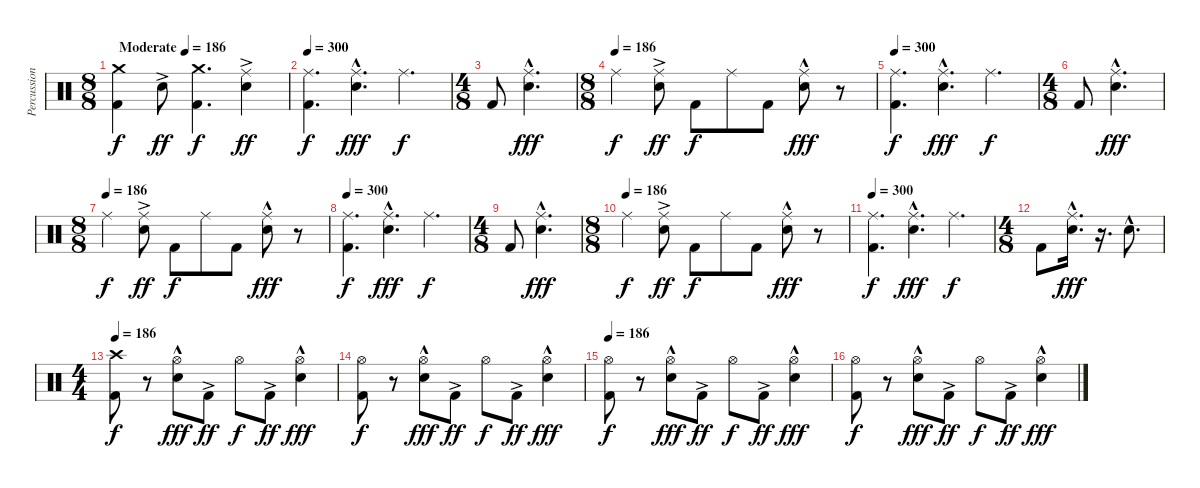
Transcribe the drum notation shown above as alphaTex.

\track ("Percussion" "Percussion") {instrument percussion}
\staff {score}
\articulation defaults
\ts (8 8)
\tempo (186 "Moderate")
\clef neutral
\ks c
("Kick (hit) 2" "Crash medium (hit)").4{dy f} "Electric Snare (hit)"{ac}.8{dy ff} ("Kick (hit) 2" "Crash medium (hit)").4{d dy f} ("Electric Snare (hit)"{ac} "Ride (middle)").4{dy ff} |
\tempo 300
("Kick (hit) 2" "Ride (middle)").4{d dy f} ("Electric Snare (hit)"{hac} "Ride (middle)").4{d dy fff} "Ride (middle)".4{d dy f} |
\ts (4 8)
"Kick (hit) 2".8 ("Electric Snare (hit)"{hac} "Ride (middle)").4{d dy fff} |
\ts (8 8)
\tempo (186)
"Ride (middle)".4{dy f} ("Electric Snare (hit)"{ac} "Ride (middle)").8{dy ff} "Kick (hit) 2".8{dy f} "Ride (middle)".8 "Kick (hit) 2".8 ("Electric Snare (hit)"{hac} "Ride (middle)").8{dy fff} r.8 |
\tempo 300
("Kick (hit) 2" "Ride (middle)").4{d dy f} ("Electric Snare (hit)"{hac} "Ride (middle)").4{d dy fff} "Ride (middle)".4{d dy f} |
\ts (4 8)
"Kick (hit) 2".8 ("Electric Snare (hit)"{hac} "Ride (middle)").4{d dy fff} |
\ts (8 8)
\tempo (186)
"Ride (middle)".4{dy f} ("Electric Snare (hit)"{ac} "Ride (middle)").8{dy ff} "Kick (hit) 2".8{dy f} "Ride (middle)".8 "Kick (hit) 2".8 ("Electric Snare (hit)"{hac} "Ride (middle)").8{dy fff} r.8 |
\tempo 300
("Kick (hit) 2" "Ride (middle)").4{d dy f} ("Electric Snare (hit)"{hac} "Ride (middle)").4{d dy fff} "Ride (middle)".4{d dy f} |
\ts (4 8)
"Kick (hit) 2".8 ("Electric Snare (hit)"{hac} "Ride (middle)").4{d dy fff} |
\ts (8 8)
\tempo (186)
"Ride (middle)".4{dy f} ("Electric Snare (hit)"{ac} "Ride (middle)").8{dy ff} "Kick (hit) 2".8{dy f} "Ride (middle)".8 "Kick (hit) 2".8 ("Electric Snare (hit)"{hac} "Ride (middle)").8{dy fff} r.8 |
\tempo 300
("Kick (hit) 2" "Ride (middle)").4{d dy f} ("Electric Snare (hit)"{hac} "Ride (middle)").4{d dy fff} "Ride (middle)".4{d dy f} |
\ts (4 8)
"Kick (hit) 2".8 ("Electric Snare (hit)"{hac} "Ride (middle)"{hac}).16{d dy fff} r.16{d} "Electric Snare (hit)"{hac}.8{d} |
\ts (4 4)
\tempo 186
("Kick (hit) 2" "Crash high (hit)").8{dy f} r.8 ("Electric Snare (hit)"{hac} "Hi-Hat (open)").8{dy fff} "Kick (hit) 2"{ac}.8{dy ff} "Hi-Hat (open)".8{dy f} "Kick (hit) 2"{ac}.8{dy ff} ("Electric Snare (hit)"{hac} "Hi-Hat (open)").4{dy fff} |
("Kick (hit) 2" "Hi-Hat (open)").8{dy f} r.8 ("Electric Snare (hit)"{hac} "Hi-Hat (open)").8{dy fff} "Kick (hit) 2"{ac}.8{dy ff} "Hi-Hat (open)".8{dy f} "Kick (hit) 2"{ac}.8{dy ff} ("Electric Snare (hit)"{hac} "Hi-Hat (open)").4{dy fff} |
\tempo 186
("Kick (hit) 2" "Hi-Hat (open)").8{dy f} r.8 ("Electric Snare (hit)"{hac} "Hi-Hat (open)").8{dy fff} "Kick (hit) 2"{ac}.8{dy ff} "Hi-Hat (open)".8{dy f} "Kick (hit) 2"{ac}.8{dy ff} ("Electric Snare (hit)"{hac} "Hi-Hat (open)").4{dy fff} |
("Kick (hit) 2" "Hi-Hat (open)").8{dy f} r.8 ("Electric Snare (hit)"{hac} "Hi-Hat (open)").8{dy fff} "Kick (hit) 2"{ac}.8{dy ff} "Hi-Hat (open)".8{dy f} "Kick (hit) 2"{ac}.8{dy ff} ("Electric Snare (hit)"{hac} "Hi-Hat (open)").4{dy fff}
